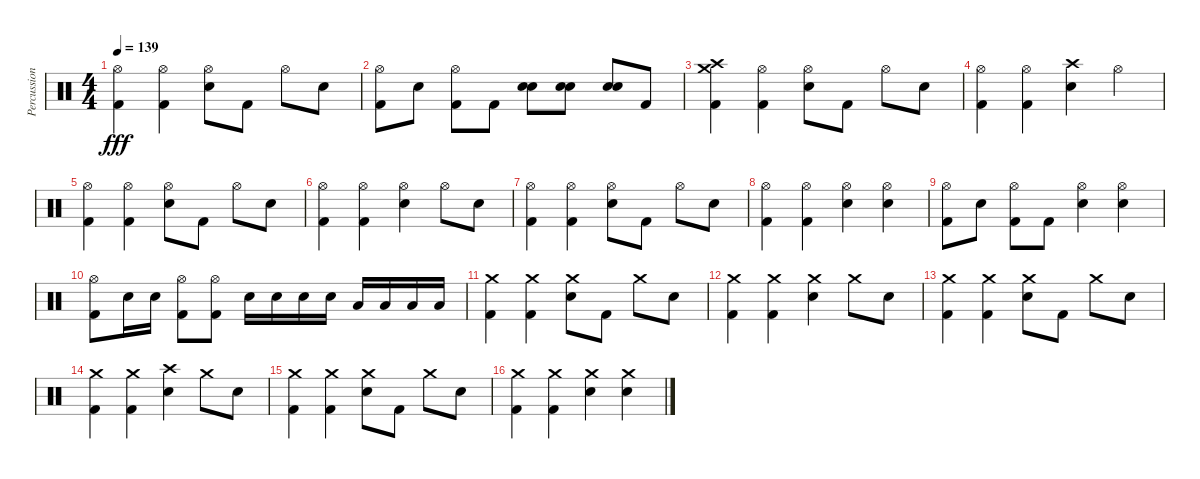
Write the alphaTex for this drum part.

\track ("Percussion" "Percussion") {instrument percussion}
\staff {score}
\articulation defaults
\ts (4 4)
\tempo 139
\clef neutral
\ks c
("Hi-Hat (open)" "Kick (hit) 2").4{dy fff} ("Hi-Hat (open)" "Kick (hit) 2").4 ("Hi-Hat (open)" "Electric Snare (hit)").8 "Kick (hit) 2".8 "Hi-Hat (open)".8 "Electric Snare (hit)".8 |
("Hi-Hat (open)" "Kick (hit) 2").8 "Electric Snare (hit)".8 ("Hi-Hat (open)" "Kick (hit) 2").8 "Kick (hit) 2".8 ("Electric Snare (hit)" "Electric Snare (hit)").8{bd 480} ("Electric Snare (hit)" "Electric Snare (hit)").8{bd 480} ("Electric Snare (hit)" "Electric Snare (hit)").8{bd 480} "Kick (hit) 2".8 |
("Crash high (hit)" "Crash medium (hit)" "Kick (hit) 2").4 ("Hi-Hat (open)" "Kick (hit) 2").4 ("Hi-Hat (open)" "Electric Snare (hit)").8 "Kick (hit) 2".8 "Hi-Hat (open)".8 "Electric Snare (hit)".8 |
("Hi-Hat (open)" "Kick (hit) 2").4 ("Hi-Hat (open)" "Kick (hit) 2").4 ("Crash high (hit)" "Electric Snare (hit)").4 "Hi-Hat (open)".4 |
("Hi-Hat (open)" "Kick (hit) 2").4 ("Hi-Hat (open)" "Kick (hit) 2").4 ("Hi-Hat (open)" "Electric Snare (hit)").8 "Kick (hit) 2".8 "Hi-Hat (open)".8 "Electric Snare (hit)".8 |
("Hi-Hat (open)" "Kick (hit) 2").4 ("Hi-Hat (open)" "Kick (hit) 2").4 ("Hi-Hat (open)" "Electric Snare (hit)").4 "Hi-Hat (open)".8 "Electric Snare (hit)".8 |
("Hi-Hat (open)" "Kick (hit) 2").4 ("Hi-Hat (open)" "Kick (hit) 2").4 ("Hi-Hat (open)" "Electric Snare (hit)").8 "Kick (hit) 2".8 "Hi-Hat (open)".8 "Electric Snare (hit)".8 |
("Hi-Hat (open)" "Kick (hit) 2").4 ("Hi-Hat (open)" "Kick (hit) 2").4 ("Hi-Hat (open)" "Electric Snare (hit)").4 ("Hi-Hat (open)" "Electric Snare (hit)").4 |
("Hi-Hat (open)" "Kick (hit) 2").8 "Electric Snare (hit)".8 ("Hi-Hat (open)" "Kick (hit) 2").8 "Kick (hit) 2".8 ("Hi-Hat (open)" "Electric Snare (hit)").4 ("Hi-Hat (open)" "Electric Snare (hit)").4 |
("Hi-Hat (open)" "Kick (hit) 2").8 "Electric Snare (hit)".16 "Electric Snare (hit)".16 ("Hi-Hat (open)" "Kick (hit) 2").8 ("Hi-Hat (open)" "Kick (hit) 2").8 "Electric Snare (hit)".16 "Electric Snare (hit)".16 "Electric Snare (hit)".16 "Electric Snare (hit)".16 "Low Tom (hit)".16 "Low Tom (hit)".16 "Low Floor Tom (hit)".16 "Low Floor Tom (hit)".16 |
("Crash medium (hit)" "Kick (hit) 2").4 ("Crash medium (hit)" "Kick (hit) 2").4 ("Crash medium (hit)" "Electric Snare (hit)").8 "Kick (hit) 2".8 "Crash medium (hit)".8 "Electric Snare (hit)".8 |
("Crash medium (hit)" "Kick (hit) 2").4 ("Crash medium (hit)" "Kick (hit) 2").4 ("Crash medium (hit)" "Electric Snare (hit)").4 "Crash medium (hit)".8 "Electric Snare (hit)".8 |
("Crash medium (hit)" "Kick (hit) 2").4 ("Crash medium (hit)" "Kick (hit) 2").4 ("Crash medium (hit)" "Electric Snare (hit)").8 "Kick (hit) 2".8 "Crash medium (hit)".8 "Electric Snare (hit)".8 |
("Crash medium (hit)" "Kick (hit) 2").4 ("Crash medium (hit)" "Kick (hit) 2").4 ("Crash high (hit)" "Electric Snare (hit)").4 "Crash medium (hit)".8 "Electric Snare (hit)".8 |
("Crash medium (hit)" "Kick (hit) 2").4 ("Crash medium (hit)" "Kick (hit) 2").4 ("Crash medium (hit)" "Electric Snare (hit)").8 "Kick (hit) 2".8 "Crash medium (hit)".8 "Electric Snare (hit)".8 |
("Crash medium (hit)" "Kick (hit) 2").4 ("Crash medium (hit)" "Kick (hit) 2").4 ("Crash medium (hit)" "Electric Snare (hit)").4 ("Crash medium (hit)" "Electric Snare (hit)").4
